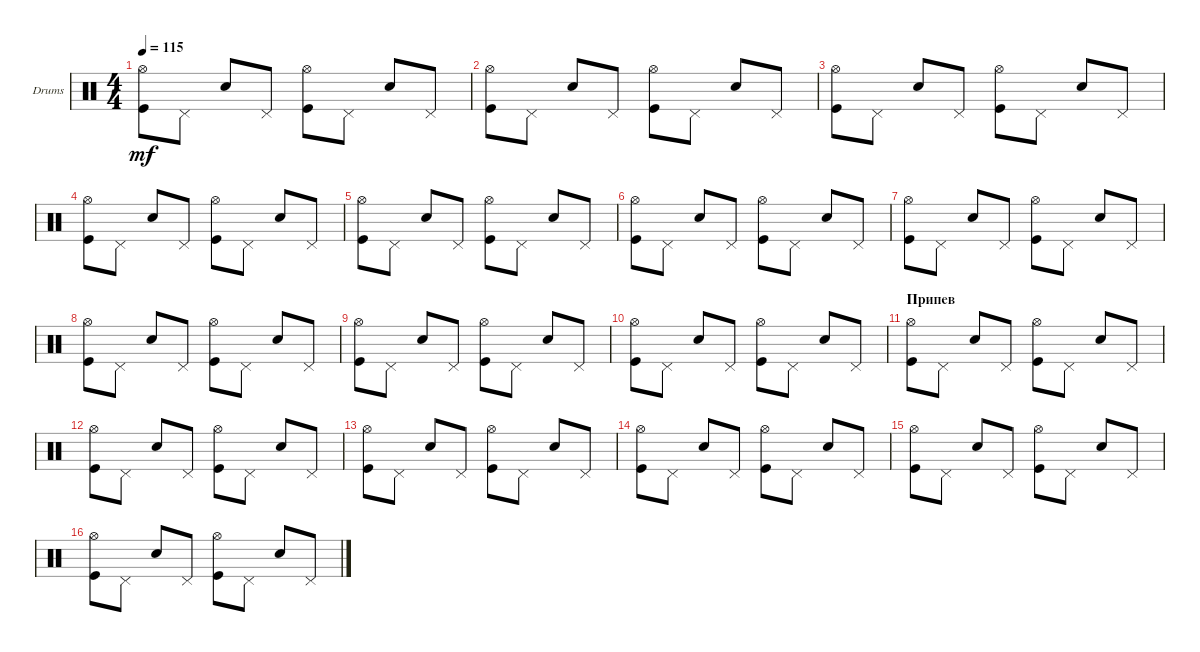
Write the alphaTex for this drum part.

\defaultSystemsLayout 4
\bracketExtendMode groupsimilarinstruments
\firstSystemTrackNameOrientation horizontal
\otherSystemsTrackNameOrientation horizontal
\track ("Е.Кулаков Ударные" "Drums") {instrument percussion}
\staff {score}
\articulation defaults
\ts (4 4)
\tempo 115
\clef neutral
\scale
0.333333
\ks c
("Kick (hit)" "Hi-Hat (open)").8{dy mf} "Pedal Hi-Hat (hit)".8 "Snare (hit) 2".8 "Pedal Hi-Hat (hit)".8 ("Kick (hit)" "Hi-Hat (open)").8 "Pedal Hi-Hat (hit)".8 "Snare (hit) 2".8 "Pedal Hi-Hat (hit)".8 |
\scale
0.333333 ("Kick (hit)" "Hi-Hat (open)").8 "Pedal Hi-Hat (hit)".8 "Snare (hit) 2".8 "Pedal Hi-Hat (hit)".8 ("Kick (hit)" "Hi-Hat (open)").8 "Pedal Hi-Hat (hit)".8 "Snare (hit) 2".8 "Pedal Hi-Hat (hit)".8 |
\scale
0.333333 ("Kick (hit)" "Hi-Hat (open)").8 "Pedal Hi-Hat (hit)".8 "Snare (hit) 2".8 "Pedal Hi-Hat (hit)".8 ("Kick (hit)" "Hi-Hat (open)").8 "Pedal Hi-Hat (hit)".8 "Snare (hit) 2".8 "Pedal Hi-Hat (hit)".8 |
\scale
0.333333 ("Kick (hit)" "Hi-Hat (open)").8 "Pedal Hi-Hat (hit)".8 "Snare (hit) 2".8 "Pedal Hi-Hat (hit)".8 ("Kick (hit)" "Hi-Hat (open)").8 "Pedal Hi-Hat (hit)".8 "Snare (hit) 2".8 "Pedal Hi-Hat (hit)".8 |
\scale
0.333333 ("Kick (hit)" "Hi-Hat (open)").8 "Pedal Hi-Hat (hit)".8 "Snare (hit) 2".8 "Pedal Hi-Hat (hit)".8 ("Kick (hit)" "Hi-Hat (open)").8 "Pedal Hi-Hat (hit)".8 "Snare (hit) 2".8 "Pedal Hi-Hat (hit)".8 |
\scale
0.333333 ("Kick (hit)" "Hi-Hat (open)").8 "Pedal Hi-Hat (hit)".8 "Snare (hit) 2".8 "Pedal Hi-Hat (hit)".8 ("Kick (hit)" "Hi-Hat (open)").8 "Pedal Hi-Hat (hit)".8 "Snare (hit) 2".8 "Pedal Hi-Hat (hit)".8 |
\scale
0.333333 ("Kick (hit)" "Hi-Hat (open)").8 "Pedal Hi-Hat (hit)".8 "Snare (hit) 2".8 "Pedal Hi-Hat (hit)".8 ("Kick (hit)" "Hi-Hat (open)").8 "Pedal Hi-Hat (hit)".8 "Snare (hit) 2".8 "Pedal Hi-Hat (hit)".8 |
("Kick (hit)" "Hi-Hat (open)").8 "Pedal Hi-Hat (hit)".8 "Snare (hit) 2".8 "Pedal Hi-Hat (hit)".8 ("Kick (hit)" "Hi-Hat (open)").8 "Pedal Hi-Hat (hit)".8 "Snare (hit) 2".8 "Pedal Hi-Hat (hit)".8 |
\scale
0.333333 ("Kick (hit)" "Hi-Hat (open)").8 "Pedal Hi-Hat (hit)".8 "Snare (hit) 2".8 "Pedal Hi-Hat (hit)".8 ("Kick (hit)" "Hi-Hat (open)").8 "Pedal Hi-Hat (hit)".8 "Snare (hit) 2".8 "Pedal Hi-Hat (hit)".8 |
\scale
0.333333 ("Kick (hit)" "Hi-Hat (open)").8 "Pedal Hi-Hat (hit)".8 "Snare (hit) 2".8 "Pedal Hi-Hat (hit)".8 ("Kick (hit)" "Hi-Hat (open)").8 "Pedal Hi-Hat (hit)".8 "Snare (hit) 2".8 "Pedal Hi-Hat (hit)".8 |
\section ("" "Припев")
\scale
0.333333 ("Kick (hit)" "Hi-Hat (open)").8 "Pedal Hi-Hat (hit)".8 "Snare (hit) 2".8 "Pedal Hi-Hat (hit)".8 ("Kick (hit)" "Hi-Hat (open)").8 "Pedal Hi-Hat (hit)".8 "Snare (hit) 2".8 "Pedal Hi-Hat (hit)".8 |
\scale
0.333333 ("Kick (hit)" "Hi-Hat (open)").8 "Pedal Hi-Hat (hit)".8 "Snare (hit) 2".8 "Pedal Hi-Hat (hit)".8 ("Kick (hit)" "Hi-Hat (open)").8 "Pedal Hi-Hat (hit)".8 "Snare (hit) 2".8 "Pedal Hi-Hat (hit)".8 |
\scale
0.333333 ("Kick (hit)" "Hi-Hat (open)").8 "Pedal Hi-Hat (hit)".8 "Snare (hit) 2".8 "Pedal Hi-Hat (hit)".8 ("Kick (hit)" "Hi-Hat (open)").8 "Pedal Hi-Hat (hit)".8 "Snare (hit) 2".8 "Pedal Hi-Hat (hit)".8 |
\scale
0.333333 ("Kick (hit)" "Hi-Hat (open)").8 "Pedal Hi-Hat (hit)".8 "Snare (hit) 2".8 "Pedal Hi-Hat (hit)".8 ("Kick (hit)" "Hi-Hat (open)").8 "Pedal Hi-Hat (hit)".8 "Snare (hit) 2".8 "Pedal Hi-Hat (hit)".8 |
\scale
0.333333 ("Kick (hit)" "Hi-Hat (open)").8 "Pedal Hi-Hat (hit)".8 "Snare (hit) 2".8 "Pedal Hi-Hat (hit)".8 ("Kick (hit)" "Hi-Hat (open)").8 "Pedal Hi-Hat (hit)".8 "Snare (hit) 2".8 "Pedal Hi-Hat (hit)".8 |
\scale
0.333333 ("Kick (hit)" "Hi-Hat (open)").8 "Pedal Hi-Hat (hit)".8 "Snare (hit) 2".8 "Pedal Hi-Hat (hit)".8 ("Kick (hit)" "Hi-Hat (open)").8 "Pedal Hi-Hat (hit)".8 "Snare (hit) 2".8 "Pedal Hi-Hat (hit)".8
